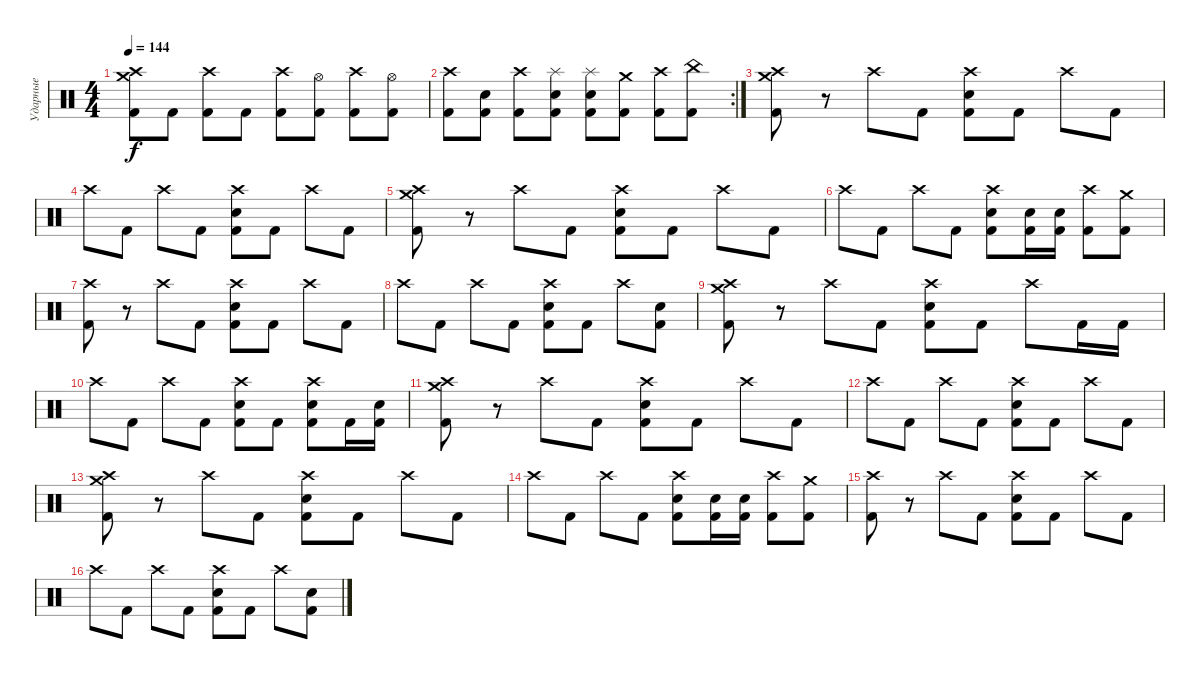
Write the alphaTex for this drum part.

\track ("Ударные" "Ударные") {instrument percussion}
\staff {score}
\articulation defaults
\ts (4 4)
\tempo 144
\clef neutral
\ks c
("Crash high (hit)" "Crash medium (hit)" "Kick (hit) 2").8{dy f} "Kick (hit) 2".8 ("Crash high (hit)" "Kick (hit) 2").8 "Kick (hit) 2".8 ("Crash high (hit)" "Kick (hit) 2").8 ("Hi-Hat (open)" "Kick (hit) 2").8 ("Crash high (hit)" "Kick (hit) 2").8 ("Hi-Hat (open)" "Kick (hit) 2").8 |
\rc 2
("Crash high (hit)" "Kick (hit) 2").8 ("Electric Snare (hit)" "Kick (hit) 2").8 ("Crash high (hit)" "Kick (hit) 2").8 ("Splash (hit)" "Electric Snare (hit)" "Kick (hit) 2").8 ("Splash (hit)" "Electric Snare (hit)" "Kick (hit) 2").8 ("Crash medium (hit)" "Kick (hit) 2").8 ("Crash high (hit)" "Kick (hit) 2").8 ("China (hit)" "Kick (hit) 2").8 |
("Crash high (hit)" "Crash medium (hit)" "Kick (hit) 2").8 r.8 "Crash high (hit)".8 "Kick (hit) 2".8 ("Crash high (hit)" "Electric Snare (hit)" "Kick (hit) 2").8 "Kick (hit) 2".8 "Crash high (hit)".8 "Kick (hit) 2".8 |
"Crash high (hit)".8 "Kick (hit) 2".8 "Crash high (hit)".8 "Kick (hit) 2".8 ("Crash high (hit)" "Electric Snare (hit)" "Kick (hit) 2").8 "Kick (hit) 2".8 "Crash high (hit)".8 "Kick (hit) 2".8 |
("Crash high (hit)" "Crash medium (hit)" "Kick (hit) 2").8 r.8 "Crash high (hit)".8 "Kick (hit) 2".8 ("Crash high (hit)" "Electric Snare (hit)" "Kick (hit) 2").8 "Kick (hit) 2".8 "Crash high (hit)".8 "Kick (hit) 2".8 |
"Crash high (hit)".8 "Kick (hit) 2".8 "Crash high (hit)".8 "Kick (hit) 2".8 ("Crash high (hit)" "Electric Snare (hit)" "Kick (hit) 2").8 ("Electric Snare (hit)" "Kick (hit) 2").16 ("Electric Snare (hit)" "Kick (hit) 2").16 ("Crash high (hit)" "Kick (hit) 2").8 ("Crash medium (hit)" "Kick (hit) 2").8 |
("Crash high (hit)" "Kick (hit) 2").8 r.8 "Crash high (hit)".8 "Kick (hit) 2".8 ("Crash high (hit)" "Electric Snare (hit)" "Kick (hit) 2").8 "Kick (hit) 2".8 "Crash high (hit)".8 "Kick (hit) 2".8 |
"Crash high (hit)".8 "Kick (hit) 2".8 "Crash high (hit)".8 "Kick (hit) 2".8 ("Crash high (hit)" "Electric Snare (hit)" "Kick (hit) 2").8 "Kick (hit) 2".8 "Crash high (hit)".8 ("Electric Snare (hit)" "Kick (hit) 2").8 |
("Crash high (hit)" "Crash medium (hit)" "Kick (hit) 2").8 r.8 "Crash high (hit)".8 "Kick (hit) 2".8 ("Crash high (hit)" "Electric Snare (hit)" "Kick (hit) 2").8 "Kick (hit) 2".8 "Crash high (hit)".8 "Kick (hit) 2".16 "Kick (hit) 2".16 |
"Crash high (hit)".8 "Kick (hit) 2".8 "Crash high (hit)".8 "Kick (hit) 2".8 ("Crash high (hit)" "Electric Snare (hit)" "Kick (hit) 2").8 "Kick (hit) 2".8 ("Crash high (hit)" "Electric Snare (hit)" "Kick (hit) 2").8 "Kick (hit) 2".16 ("Electric Snare (hit)" "Kick (hit) 2").16 |
("Crash high (hit)" "Crash medium (hit)" "Kick (hit) 2").8 r.8 "Crash high (hit)".8 "Kick (hit) 2".8 ("Crash high (hit)" "Electric Snare (hit)" "Kick (hit) 2").8 "Kick (hit) 2".8 "Crash high (hit)".8 "Kick (hit) 2".8 |
"Crash high (hit)".8 "Kick (hit) 2".8 "Crash high (hit)".8 "Kick (hit) 2".8 ("Crash high (hit)" "Electric Snare (hit)" "Kick (hit) 2").8 "Kick (hit) 2".8 "Crash high (hit)".8 "Kick (hit) 2".8 |
("Crash high (hit)" "Crash medium (hit)" "Kick (hit) 2").8 r.8 "Crash high (hit)".8 "Kick (hit) 2".8 ("Crash high (hit)" "Electric Snare (hit)" "Kick (hit) 2").8 "Kick (hit) 2".8 "Crash high (hit)".8 "Kick (hit) 2".8 |
"Crash high (hit)".8 "Kick (hit) 2".8 "Crash high (hit)".8 "Kick (hit) 2".8 ("Crash high (hit)" "Electric Snare (hit)" "Kick (hit) 2").8 ("Electric Snare (hit)" "Kick (hit) 2").16 ("Electric Snare (hit)" "Kick (hit) 2").16 ("Crash high (hit)" "Kick (hit) 2").8 ("Crash medium (hit)" "Kick (hit) 2").8 |
("Crash high (hit)" "Kick (hit) 2").8 r.8 "Crash high (hit)".8 "Kick (hit) 2".8 ("Crash high (hit)" "Electric Snare (hit)" "Kick (hit) 2").8 "Kick (hit) 2".8 "Crash high (hit)".8 "Kick (hit) 2".8 |
"Crash high (hit)".8 "Kick (hit) 2".8 "Crash high (hit)".8 "Kick (hit) 2".8 ("Crash high (hit)" "Electric Snare (hit)" "Kick (hit) 2").8 "Kick (hit) 2".8 "Crash high (hit)".8 ("Electric Snare (hit)" "Kick (hit) 2").8
